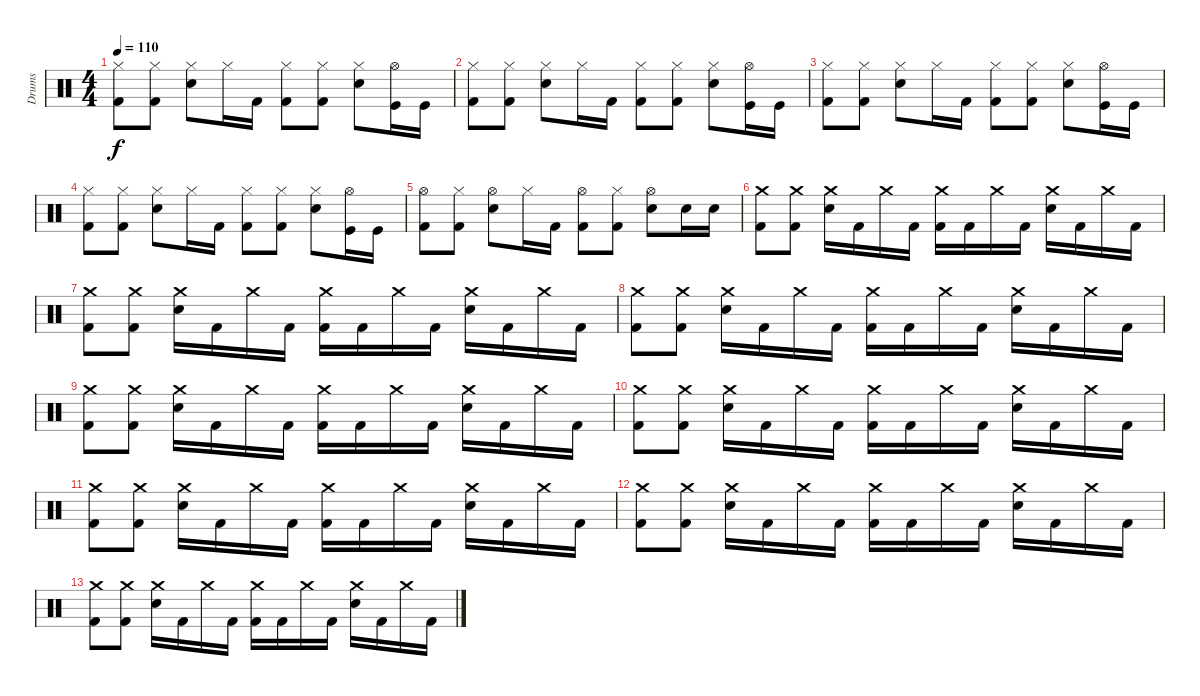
\track ("Drums" "Drums") {instrument percussion}
\staff {score}
\articulation defaults
\ts (4 4)
\tempo 110
\clef neutral
\ks c
("Hi-Hat (closed)" "Kick (hit) 2").8{dy f} ("Hi-Hat (closed)" "Kick (hit) 2").8 ("Hi-Hat (closed)" "Snare (hit) 2").8 "Hi-Hat (closed)".16 "Kick (hit) 2".16 ("Hi-Hat (closed)" "Kick (hit) 2").8 ("Hi-Hat (closed)" "Kick (hit) 2").8 ("Hi-Hat (closed)" "Snare (hit) 2").8 ("Hi-Hat (open)" "Kick (hit)").16 "Kick (hit)".16 |
("Hi-Hat (closed)" "Kick (hit) 2").8 ("Hi-Hat (closed)" "Kick (hit) 2").8 ("Hi-Hat (closed)" "Snare (hit) 2").8 "Hi-Hat (closed)".16 "Kick (hit) 2".16 ("Hi-Hat (closed)" "Kick (hit) 2").8 ("Hi-Hat (closed)" "Kick (hit) 2").8 ("Hi-Hat (closed)" "Snare (hit) 2").8 ("Hi-Hat (open)" "Kick (hit)").16 "Kick (hit)".16 |
("Hi-Hat (closed)" "Kick (hit) 2").8 ("Hi-Hat (closed)" "Kick (hit) 2").8 ("Hi-Hat (closed)" "Snare (hit) 2").8 "Hi-Hat (closed)".16 "Kick (hit) 2".16 ("Hi-Hat (closed)" "Kick (hit) 2").8 ("Hi-Hat (closed)" "Kick (hit) 2").8 ("Hi-Hat (closed)" "Snare (hit) 2").8 ("Hi-Hat (open)" "Kick (hit)").16 "Kick (hit)".16 |
("Hi-Hat (closed)" "Kick (hit) 2").8 ("Hi-Hat (closed)" "Kick (hit) 2").8 ("Hi-Hat (closed)" "Snare (hit) 2").8 "Hi-Hat (closed)".16 "Kick (hit) 2".16 ("Hi-Hat (closed)" "Kick (hit) 2").8 ("Hi-Hat (closed)" "Kick (hit) 2").8 ("Hi-Hat (closed)" "Snare (hit) 2").8 ("Hi-Hat (open)" "Kick (hit)").16 "Kick (hit)".16 |
("Hi-Hat (open)" "Kick (hit) 2").8 ("Hi-Hat (closed)" "Kick (hit) 2").8 ("Hi-Hat (open)" "Snare (hit) 2").8 "Hi-Hat (closed)".16 "Kick (hit) 2".16 ("Hi-Hat (open)" "Kick (hit) 2").8 ("Hi-Hat (closed)" "Kick (hit) 2").8 ("Hi-Hat (open)" "Snare (hit) 2").8 "Snare (hit) 2".16 "Snare (hit) 2".16 |
("Crash medium (hit)" "Kick (hit) 2").8 ("Crash medium (hit)" "Kick (hit) 2").8 ("Crash medium (hit)" "Snare (hit) 2").16 "Kick (hit) 2".16 "Crash medium (hit)".16 "Kick (hit) 2".16 ("Crash medium (hit)" "Kick (hit) 2").16 "Kick (hit) 2".16 "Crash medium (hit)".16 "Kick (hit) 2".16 ("Crash medium (hit)" "Snare (hit) 2").16 "Kick (hit) 2".16 "Crash medium (hit)".16 "Kick (hit) 2".16 |
("Crash medium (hit)" "Kick (hit) 2").8 ("Crash medium (hit)" "Kick (hit) 2").8 ("Crash medium (hit)" "Snare (hit) 2").16 "Kick (hit) 2".16 "Crash medium (hit)".16 "Kick (hit) 2".16 ("Crash medium (hit)" "Kick (hit) 2").16 "Kick (hit) 2".16 "Crash medium (hit)".16 "Kick (hit) 2".16 ("Crash medium (hit)" "Snare (hit) 2").16 "Kick (hit) 2".16 "Crash medium (hit)".16 "Kick (hit) 2".16 |
("Crash medium (hit)" "Kick (hit) 2").8 ("Crash medium (hit)" "Kick (hit) 2").8 ("Crash medium (hit)" "Snare (hit) 2").16 "Kick (hit) 2".16 "Crash medium (hit)".16 "Kick (hit) 2".16 ("Crash medium (hit)" "Kick (hit) 2").16 "Kick (hit) 2".16 "Crash medium (hit)".16 "Kick (hit) 2".16 ("Crash medium (hit)" "Snare (hit) 2").16 "Kick (hit) 2".16 "Crash medium (hit)".16 "Kick (hit) 2".16 |
("Crash medium (hit)" "Kick (hit) 2").8 ("Crash medium (hit)" "Kick (hit) 2").8 ("Crash medium (hit)" "Snare (hit) 2").16 "Kick (hit) 2".16 "Crash medium (hit)".16 "Kick (hit) 2".16 ("Crash medium (hit)" "Kick (hit) 2").16 "Kick (hit) 2".16 "Crash medium (hit)".16 "Kick (hit) 2".16 ("Crash medium (hit)" "Snare (hit) 2").16 "Kick (hit) 2".16 "Crash medium (hit)".16 "Kick (hit) 2".16 |
("Crash medium (hit)" "Kick (hit) 2").8 ("Crash medium (hit)" "Kick (hit) 2").8 ("Crash medium (hit)" "Snare (hit) 2").16 "Kick (hit) 2".16 "Crash medium (hit)".16 "Kick (hit) 2".16 ("Crash medium (hit)" "Kick (hit) 2").16 "Kick (hit) 2".16 "Crash medium (hit)".16 "Kick (hit) 2".16 ("Crash medium (hit)" "Snare (hit) 2").16 "Kick (hit) 2".16 "Crash medium (hit)".16 "Kick (hit) 2".16 |
("Crash medium (hit)" "Kick (hit) 2").8 ("Crash medium (hit)" "Kick (hit) 2").8 ("Crash medium (hit)" "Snare (hit) 2").16 "Kick (hit) 2".16 "Crash medium (hit)".16 "Kick (hit) 2".16 ("Crash medium (hit)" "Kick (hit) 2").16 "Kick (hit) 2".16 "Crash medium (hit)".16 "Kick (hit) 2".16 ("Crash medium (hit)" "Snare (hit) 2").16 "Kick (hit) 2".16 "Crash medium (hit)".16 "Kick (hit) 2".16 |
("Crash medium (hit)" "Kick (hit) 2").8 ("Crash medium (hit)" "Kick (hit) 2").8 ("Crash medium (hit)" "Snare (hit) 2").16 "Kick (hit) 2".16 "Crash medium (hit)".16 "Kick (hit) 2".16 ("Crash medium (hit)" "Kick (hit) 2").16 "Kick (hit) 2".16 "Crash medium (hit)".16 "Kick (hit) 2".16 ("Crash medium (hit)" "Snare (hit) 2").16 "Kick (hit) 2".16 "Crash medium (hit)".16 "Kick (hit) 2".16 |
("Crash medium (hit)" "Kick (hit) 2").8 ("Crash medium (hit)" "Kick (hit) 2").8 ("Crash medium (hit)" "Snare (hit) 2").16 "Kick (hit) 2".16 "Crash medium (hit)".16 "Kick (hit) 2".16 ("Crash medium (hit)" "Kick (hit) 2").16 "Kick (hit) 2".16 "Crash medium (hit)".16 "Kick (hit) 2".16 ("Crash medium (hit)" "Snare (hit) 2").16 "Kick (hit) 2".16 "Crash medium (hit)".16 "Kick (hit) 2".16
